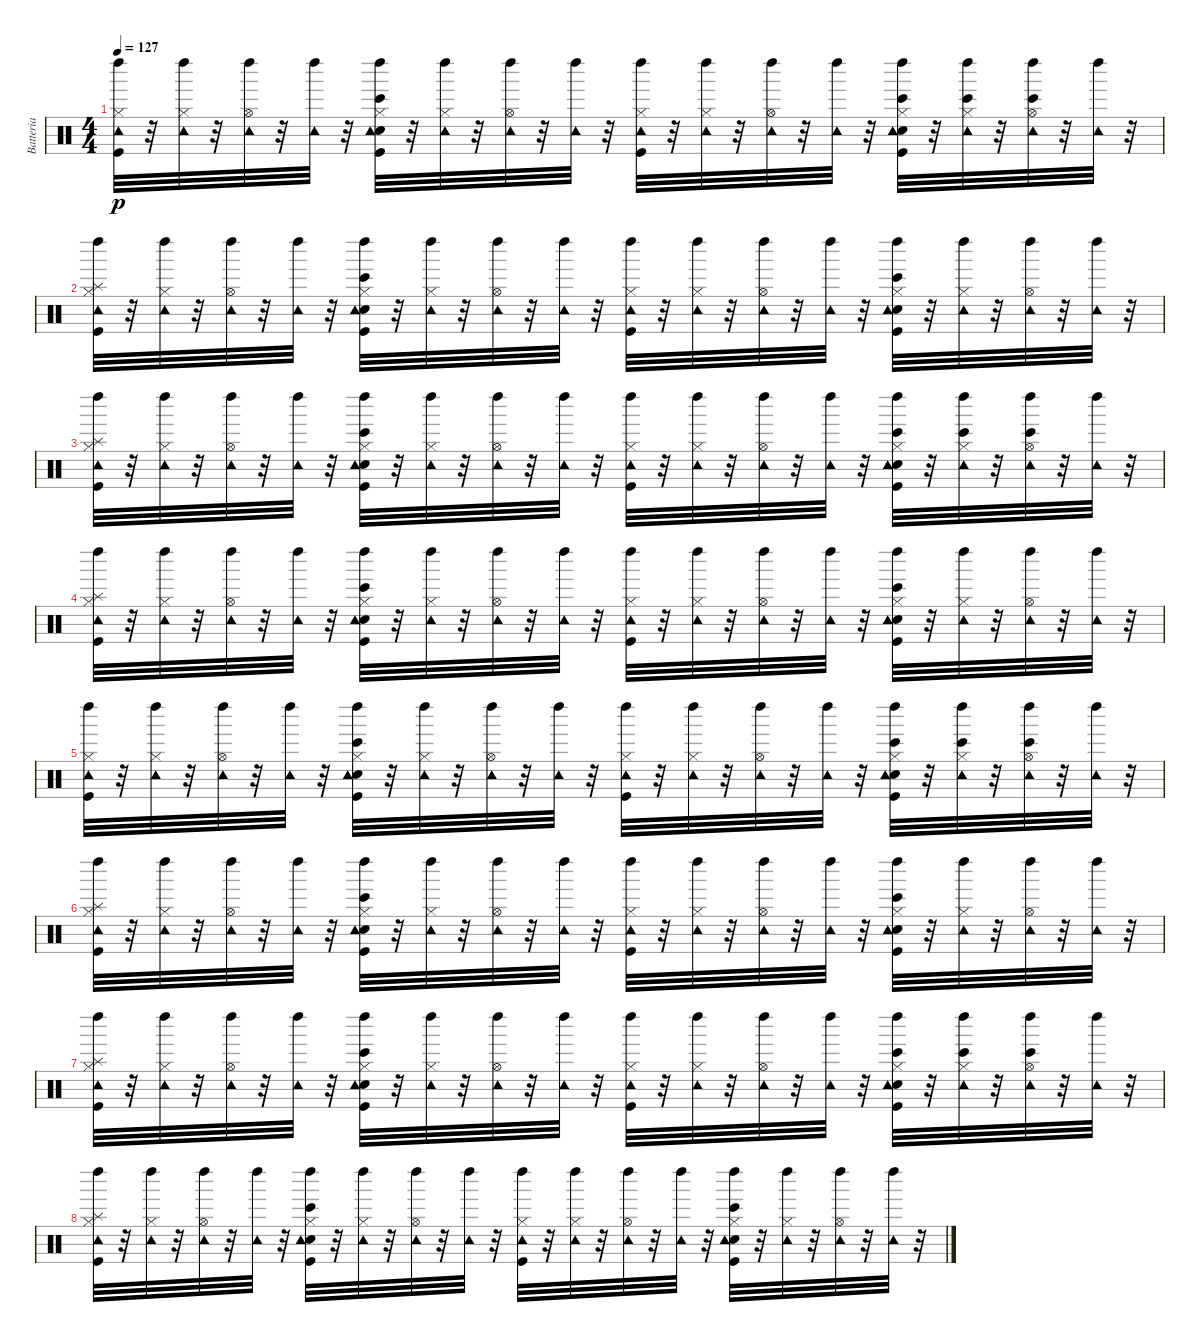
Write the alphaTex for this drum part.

\track ("Batteria" "Batteria") {instrument percussion}
\staff {score}
\articulation defaults
\ts (4 4)
\tempo 127
\clef neutral
\ks c
("Kick (hit)" "Hi-Hat (closed)" "Tambourine (hit)" "Left Maraca (hit)").32{dy p} r.32 ("Hi-Hat (closed)" "Tambourine (hit)" "Left Maraca (hit)").32 r.32 ("Hi-Hat (open)" "Tambourine (hit)" "Left Maraca (hit)").32 r.32 ("Tambourine (hit)" "Left Maraca (hit)").32 r.32 ("Bongo High (hit)" "Kick (hit)" "Electric Snare (hit)" "Hi-Hat (closed)" "Tambourine (hit)" "Left Maraca (hit)").32 r.32 ("Hi-Hat (closed)" "Tambourine (hit)" "Left Maraca (hit)").32 r.32 ("Hi-Hat (open)" "Tambourine (hit)" "Left Maraca (hit)").32 r.32 ("Tambourine (hit)" "Left Maraca (hit)").32 r.32 ("Kick (hit)" "Hi-Hat (closed)" "Tambourine (hit)" "Left Maraca (hit)").32 r.32 ("Hi-Hat (closed)" "Tambourine (hit)" "Left Maraca (hit)").32 r.32 ("Hi-Hat (open)" "Tambourine (hit)" "Left Maraca (hit)").32 r.32 ("Tambourine (hit)" "Left Maraca (hit)").32 r.32 ("Bongo High (hit)" "Kick (hit)" "Electric Snare (hit)" "Hi-Hat (closed)" "Tambourine (hit)" "Left Maraca (hit)").32 r.32 ("Bongo High (hit)" "Hi-Hat (closed)" "Tambourine (hit)" "Left Maraca (hit)").32 r.32 ("Bongo High (hit)" "Hi-Hat (open)" "Tambourine (hit)" "Left Maraca (hit)").32 r.32 ("Tambourine (hit)" "Left Maraca (hit)").32 r.32 |
("Kick (hit)" "Hi-Hat (closed)" "Tambourine (hit)" "Splash (hit)" "Left Maraca (hit)").32 r.32 ("Hi-Hat (closed)" "Tambourine (hit)" "Left Maraca (hit)").32 r.32 ("Hi-Hat (open)" "Tambourine (hit)" "Left Maraca (hit)").32 r.32 ("Tambourine (hit)" "Left Maraca (hit)").32 r.32 ("Bongo High (hit)" "Kick (hit)" "Electric Snare (hit)" "Hi-Hat (closed)" "Tambourine (hit)" "Left Maraca (hit)").32 r.32 ("Hi-Hat (closed)" "Tambourine (hit)" "Left Maraca (hit)").32 r.32 ("Hi-Hat (open)" "Tambourine (hit)" "Left Maraca (hit)").32 r.32 ("Tambourine (hit)" "Left Maraca (hit)").32 r.32 ("Kick (hit)" "Hi-Hat (closed)" "Tambourine (hit)" "Left Maraca (hit)").32 r.32 ("Hi-Hat (closed)" "Tambourine (hit)" "Left Maraca (hit)").32 r.32 ("Hi-Hat (open)" "Tambourine (hit)" "Left Maraca (hit)").32 r.32 ("Tambourine (hit)" "Left Maraca (hit)").32 r.32 ("Bongo High (hit)" "Kick (hit)" "Electric Snare (hit)" "Hi-Hat (closed)" "Tambourine (hit)" "Left Maraca (hit)").32 r.32 ("Hi-Hat (closed)" "Tambourine (hit)" "Left Maraca (hit)").32 r.32 ("Hi-Hat (open)" "Tambourine (hit)" "Left Maraca (hit)").32 r.32 ("Tambourine (hit)" "Left Maraca (hit)").32 r.32 |
("Kick (hit)" "Hi-Hat (closed)" "Tambourine (hit)" "Splash (hit)" "Left Maraca (hit)").32 r.32 ("Hi-Hat (closed)" "Tambourine (hit)" "Left Maraca (hit)").32 r.32 ("Hi-Hat (open)" "Tambourine (hit)" "Left Maraca (hit)").32 r.32 ("Tambourine (hit)" "Left Maraca (hit)").32 r.32 ("Bongo High (hit)" "Kick (hit)" "Electric Snare (hit)" "Hi-Hat (closed)" "Tambourine (hit)" "Left Maraca (hit)").32 r.32 ("Hi-Hat (closed)" "Tambourine (hit)" "Left Maraca (hit)").32 r.32 ("Hi-Hat (open)" "Tambourine (hit)" "Left Maraca (hit)").32 r.32 ("Tambourine (hit)" "Left Maraca (hit)").32 r.32 ("Kick (hit)" "Hi-Hat (closed)" "Tambourine (hit)" "Left Maraca (hit)").32 r.32 ("Hi-Hat (closed)" "Tambourine (hit)" "Left Maraca (hit)").32 r.32 ("Hi-Hat (open)" "Tambourine (hit)" "Left Maraca (hit)").32 r.32 ("Tambourine (hit)" "Left Maraca (hit)").32 r.32 ("Bongo High (hit)" "Kick (hit)" "Electric Snare (hit)" "Hi-Hat (closed)" "Tambourine (hit)" "Left Maraca (hit)").32 r.32 ("Bongo High (hit)" "Hi-Hat (closed)" "Tambourine (hit)" "Left Maraca (hit)").32 r.32 ("Bongo High (hit)" "Hi-Hat (open)" "Tambourine (hit)" "Left Maraca (hit)").32 r.32 ("Tambourine (hit)" "Left Maraca (hit)").32 r.32 |
("Kick (hit)" "Hi-Hat (closed)" "Tambourine (hit)" "Splash (hit)" "Left Maraca (hit)").32 r.32 ("Hi-Hat (closed)" "Tambourine (hit)" "Left Maraca (hit)").32 r.32 ("Hi-Hat (open)" "Tambourine (hit)" "Left Maraca (hit)").32 r.32 ("Tambourine (hit)" "Left Maraca (hit)").32 r.32 ("Bongo High (hit)" "Kick (hit)" "Electric Snare (hit)" "Hi-Hat (closed)" "Tambourine (hit)" "Left Maraca (hit)").32 r.32 ("Hi-Hat (closed)" "Tambourine (hit)" "Left Maraca (hit)").32 r.32 ("Hi-Hat (open)" "Tambourine (hit)" "Left Maraca (hit)").32 r.32 ("Tambourine (hit)" "Left Maraca (hit)").32 r.32 ("Kick (hit)" "Hi-Hat (closed)" "Tambourine (hit)" "Left Maraca (hit)").32 r.32 ("Hi-Hat (closed)" "Tambourine (hit)" "Left Maraca (hit)").32 r.32 ("Hi-Hat (open)" "Tambourine (hit)" "Left Maraca (hit)").32 r.32 ("Tambourine (hit)" "Left Maraca (hit)").32 r.32 ("Bongo High (hit)" "Kick (hit)" "Electric Snare (hit)" "Hi-Hat (closed)" "Tambourine (hit)" "Left Maraca (hit)").32 r.32 ("Hi-Hat (closed)" "Tambourine (hit)" "Left Maraca (hit)").32 r.32 ("Hi-Hat (open)" "Tambourine (hit)" "Left Maraca (hit)").32 r.32 ("Tambourine (hit)" "Left Maraca (hit)").32 r.32 |
("Kick (hit)" "Hi-Hat (closed)" "Tambourine (hit)" "Left Maraca (hit)").32 r.32 ("Hi-Hat (closed)" "Tambourine (hit)" "Left Maraca (hit)").32 r.32 ("Hi-Hat (open)" "Tambourine (hit)" "Left Maraca (hit)").32 r.32 ("Tambourine (hit)" "Left Maraca (hit)").32 r.32 ("Bongo High (hit)" "Kick (hit)" "Electric Snare (hit)" "Hi-Hat (closed)" "Tambourine (hit)" "Left Maraca (hit)").32 r.32 ("Hi-Hat (closed)" "Tambourine (hit)" "Left Maraca (hit)").32 r.32 ("Hi-Hat (open)" "Tambourine (hit)" "Left Maraca (hit)").32 r.32 ("Tambourine (hit)" "Left Maraca (hit)").32 r.32 ("Kick (hit)" "Hi-Hat (closed)" "Tambourine (hit)" "Left Maraca (hit)").32 r.32 ("Hi-Hat (closed)" "Tambourine (hit)" "Left Maraca (hit)").32 r.32 ("Hi-Hat (open)" "Tambourine (hit)" "Left Maraca (hit)").32 r.32 ("Tambourine (hit)" "Left Maraca (hit)").32 r.32 ("Bongo High (hit)" "Kick (hit)" "Electric Snare (hit)" "Hi-Hat (closed)" "Tambourine (hit)" "Left Maraca (hit)").32 r.32 ("Bongo High (hit)" "Hi-Hat (closed)" "Tambourine (hit)" "Left Maraca (hit)").32 r.32 ("Bongo High (hit)" "Hi-Hat (open)" "Tambourine (hit)" "Left Maraca (hit)").32 r.32 ("Tambourine (hit)" "Left Maraca (hit)").32 r.32 |
("Kick (hit)" "Hi-Hat (closed)" "Tambourine (hit)" "Splash (hit)" "Left Maraca (hit)").32 r.32 ("Hi-Hat (closed)" "Tambourine (hit)" "Left Maraca (hit)").32 r.32 ("Hi-Hat (open)" "Tambourine (hit)" "Left Maraca (hit)").32 r.32 ("Tambourine (hit)" "Left Maraca (hit)").32 r.32 ("Bongo High (hit)" "Kick (hit)" "Electric Snare (hit)" "Hi-Hat (closed)" "Tambourine (hit)" "Left Maraca (hit)").32 r.32 ("Hi-Hat (closed)" "Tambourine (hit)" "Left Maraca (hit)").32 r.32 ("Hi-Hat (open)" "Tambourine (hit)" "Left Maraca (hit)").32 r.32 ("Tambourine (hit)" "Left Maraca (hit)").32 r.32 ("Kick (hit)" "Hi-Hat (closed)" "Tambourine (hit)" "Left Maraca (hit)").32 r.32 ("Hi-Hat (closed)" "Tambourine (hit)" "Left Maraca (hit)").32 r.32 ("Hi-Hat (open)" "Tambourine (hit)" "Left Maraca (hit)").32 r.32 ("Tambourine (hit)" "Left Maraca (hit)").32 r.32 ("Bongo High (hit)" "Kick (hit)" "Electric Snare (hit)" "Hi-Hat (closed)" "Tambourine (hit)" "Left Maraca (hit)").32 r.32 ("Hi-Hat (closed)" "Tambourine (hit)" "Left Maraca (hit)").32 r.32 ("Hi-Hat (open)" "Tambourine (hit)" "Left Maraca (hit)").32 r.32 ("Tambourine (hit)" "Left Maraca (hit)").32 r.32 |
("Kick (hit)" "Hi-Hat (closed)" "Tambourine (hit)" "Splash (hit)" "Left Maraca (hit)").32 r.32 ("Hi-Hat (closed)" "Tambourine (hit)" "Left Maraca (hit)").32 r.32 ("Hi-Hat (open)" "Tambourine (hit)" "Left Maraca (hit)").32 r.32 ("Tambourine (hit)" "Left Maraca (hit)").32 r.32 ("Bongo High (hit)" "Kick (hit)" "Electric Snare (hit)" "Hi-Hat (closed)" "Tambourine (hit)" "Left Maraca (hit)").32 r.32 ("Hi-Hat (closed)" "Tambourine (hit)" "Left Maraca (hit)").32 r.32 ("Hi-Hat (open)" "Tambourine (hit)" "Left Maraca (hit)").32 r.32 ("Tambourine (hit)" "Left Maraca (hit)").32 r.32 ("Kick (hit)" "Hi-Hat (closed)" "Tambourine (hit)" "Left Maraca (hit)").32 r.32 ("Hi-Hat (closed)" "Tambourine (hit)" "Left Maraca (hit)").32 r.32 ("Hi-Hat (open)" "Tambourine (hit)" "Left Maraca (hit)").32 r.32 ("Tambourine (hit)" "Left Maraca (hit)").32 r.32 ("Bongo High (hit)" "Kick (hit)" "Electric Snare (hit)" "Hi-Hat (closed)" "Tambourine (hit)" "Left Maraca (hit)").32 r.32 ("Bongo High (hit)" "Hi-Hat (closed)" "Tambourine (hit)" "Left Maraca (hit)").32 r.32 ("Bongo High (hit)" "Hi-Hat (open)" "Tambourine (hit)" "Left Maraca (hit)").32 r.32 ("Tambourine (hit)" "Left Maraca (hit)").32 r.32 |
("Kick (hit)" "Hi-Hat (closed)" "Tambourine (hit)" "Splash (hit)" "Left Maraca (hit)").32 r.32 ("Hi-Hat (closed)" "Tambourine (hit)" "Left Maraca (hit)").32 r.32 ("Hi-Hat (open)" "Tambourine (hit)" "Left Maraca (hit)").32 r.32 ("Tambourine (hit)" "Left Maraca (hit)").32 r.32 ("Bongo High (hit)" "Kick (hit)" "Electric Snare (hit)" "Hi-Hat (closed)" "Tambourine (hit)" "Left Maraca (hit)").32 r.32 ("Hi-Hat (closed)" "Tambourine (hit)" "Left Maraca (hit)").32 r.32 ("Hi-Hat (open)" "Tambourine (hit)" "Left Maraca (hit)").32 r.32 ("Tambourine (hit)" "Left Maraca (hit)").32 r.32 ("Kick (hit)" "Hi-Hat (closed)" "Tambourine (hit)" "Left Maraca (hit)").32 r.32 ("Hi-Hat (closed)" "Tambourine (hit)" "Left Maraca (hit)").32 r.32 ("Hi-Hat (open)" "Tambourine (hit)" "Left Maraca (hit)").32 r.32 ("Tambourine (hit)" "Left Maraca (hit)").32 r.32 ("Bongo High (hit)" "Kick (hit)" "Electric Snare (hit)" "Hi-Hat (closed)" "Tambourine (hit)" "Left Maraca (hit)").32 r.32 ("Hi-Hat (closed)" "Tambourine (hit)" "Left Maraca (hit)").32 r.32 ("Hi-Hat (open)" "Tambourine (hit)" "Left Maraca (hit)").32 r.32 ("Tambourine (hit)" "Left Maraca (hit)").32 r.32
